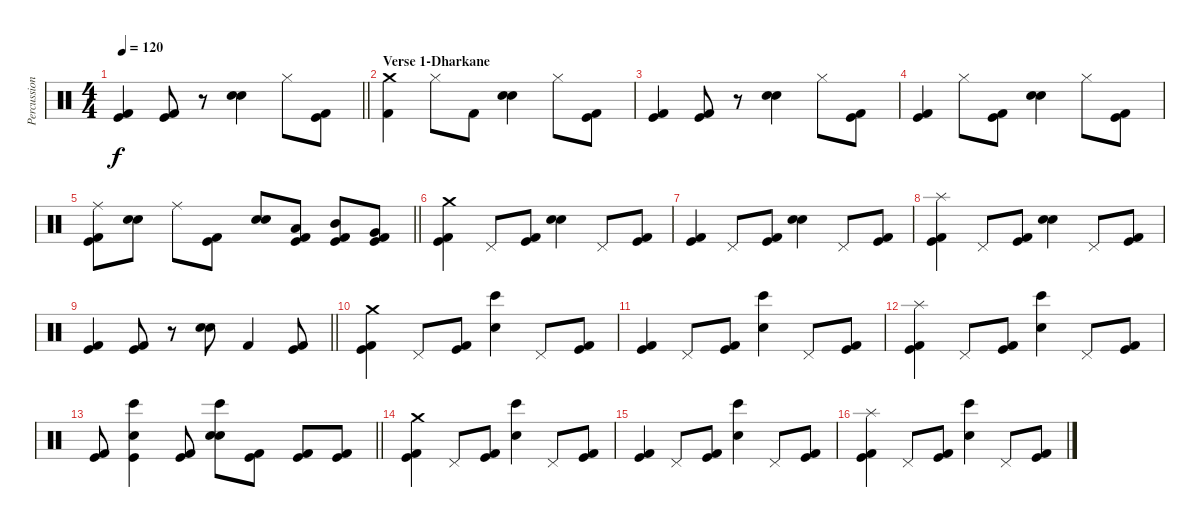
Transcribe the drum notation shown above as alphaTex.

\track ("Percussion" "Percussion") {instrument percussion}
\staff {score}
\articulation defaults
\ts (4 4)
\tempo 120
\clef neutral
\barLineRight lightlight
\ks c
("Kick (hit)" "Kick (hit) 2").4{dy f} ("Kick (hit)" "Kick (hit) 2").8 r.8 ("Snare (hit) 2" "Electric Snare (hit)").4 "Hi-Hat (closed)".8 ("Kick (hit)" "Kick (hit) 2").8 |
\section ("" "Verse 1-Dharkane")
("Crash medium (hit)" "Kick (hit) 2").4 "Hi-Hat (closed)".8 "Kick (hit) 2".8 ("Snare (hit) 2" "Electric Snare (hit)").4 "Hi-Hat (closed)".8 ("Kick (hit)" "Kick (hit) 2").8 |
("Kick (hit)" "Kick (hit) 2").4 ("Kick (hit)" "Kick (hit) 2").8 r.8 ("Snare (hit) 2" "Electric Snare (hit)").4 "Hi-Hat (closed)".8 ("Kick (hit)" "Kick (hit) 2").8 |
("Kick (hit)" "Kick (hit) 2").4 "Hi-Hat (closed)".8 ("Kick (hit)" "Kick (hit) 2").8 ("Snare (hit) 2" "Electric Snare (hit)").4 "Hi-Hat (closed)".8 ("Kick (hit)" "Kick (hit) 2").8 |
\barLineRight lightlight
("Ride (middle)" "Kick (hit)" "Kick (hit) 2").8 ("Snare (hit) 2" "Electric Snare (hit)").8 "Ride (middle)".8 ("Kick (hit)" "Kick (hit) 2").8 ("Snare (hit) 2" "Electric Snare (hit)").8 ("Kick (hit)" "Kick (hit) 2" "Low Tom (hit)").8 ("Kick (hit)" "Kick (hit) 2" "Mid Tom (hit)").8 ("Kick (hit)" "Kick (hit) 2" "Very Low Tom (hit)").8 |
("Crash medium (hit)" "Kick (hit) 2" "Kick (hit)").4 "Pedal Hi-Hat (hit)".8 ("Kick (hit)" "Kick (hit) 2").8 ("Snare (hit) 2" "Electric Snare (hit)").4 "Pedal Hi-Hat (hit)".8 ("Kick (hit)" "Kick (hit) 2").8 |
("Kick (hit) 2" "Kick (hit)").4 "Pedal Hi-Hat (hit)".8 ("Kick (hit)" "Kick (hit) 2").8 ("Snare (hit) 2" "Electric Snare (hit)").4 "Pedal Hi-Hat (hit)".8 ("Kick (hit)" "Kick (hit) 2").8 |
("Splash (hit)" "Kick (hit) 2" "Kick (hit)").4 "Pedal Hi-Hat (hit)".8 ("Kick (hit)" "Kick (hit) 2").8 ("Snare (hit) 2" "Electric Snare (hit)").4 "Pedal Hi-Hat (hit)".8 ("Kick (hit)" "Kick (hit) 2").8 |
\barLineRight lightlight
("Kick (hit) 2" "Kick (hit)").4 ("Kick (hit) 2" "Kick (hit)").8 r.8 ("Snare (hit) 2" "Electric Snare (hit)").8 "Kick (hit) 2".4 ("Kick (hit)" "Kick (hit) 2").8 |
("Crash medium (hit)" "Kick (hit) 2" "Kick (hit)").4 "Pedal Hi-Hat (hit)".8 ("Kick (hit)" "Kick (hit) 2").8 ("Snare (hit) 2" "Bongo High (hit)").4 "Pedal Hi-Hat (hit)".8 ("Kick (hit)" "Kick (hit) 2").8 |
("Kick (hit) 2" "Kick (hit)").4 "Pedal Hi-Hat (hit)".8 ("Kick (hit)" "Kick (hit) 2").8 ("Snare (hit) 2" "Bongo High (hit)").4 "Pedal Hi-Hat (hit)".8 ("Kick (hit)" "Kick (hit) 2").8 |
("Splash (hit)" "Kick (hit) 2" "Kick (hit)").4 "Pedal Hi-Hat (hit)".8 ("Kick (hit)" "Kick (hit) 2").8 ("Snare (hit) 2" "Bongo High (hit)").4 "Pedal Hi-Hat (hit)".8 ("Kick (hit)" "Kick (hit) 2").8 |
\barLineRight lightlight
("Kick (hit) 2" "Kick (hit)").8 ("Bongo High (hit)" "Snare (hit) 2" "Kick (hit)").4 ("Kick (hit)" "Kick (hit) 2").8 ("Bongo High (hit)" "Snare (hit) 2" "Electric Snare (hit)").8 ("Kick (hit) 2" "Kick (hit)").8 ("Kick (hit) 2" "Kick (hit)").8 ("Kick (hit)" "Kick (hit) 2").8 |
("Crash medium (hit)" "Kick (hit) 2" "Kick (hit)").4 "Pedal Hi-Hat (hit)".8 ("Kick (hit)" "Kick (hit) 2").8 ("Snare (hit) 2" "Bongo High (hit)").4 "Pedal Hi-Hat (hit)".8 ("Kick (hit)" "Kick (hit) 2").8 |
("Kick (hit) 2" "Kick (hit)").4 "Pedal Hi-Hat (hit)".8 ("Kick (hit)" "Kick (hit) 2").8 ("Snare (hit) 2" "Bongo High (hit)").4 "Pedal Hi-Hat (hit)".8 ("Kick (hit)" "Kick (hit) 2").8 |
("Splash (hit)" "Kick (hit) 2" "Kick (hit)").4 "Pedal Hi-Hat (hit)".8 ("Kick (hit)" "Kick (hit) 2").8 ("Snare (hit) 2" "Bongo High (hit)").4 "Pedal Hi-Hat (hit)".8 ("Kick (hit)" "Kick (hit) 2").8
